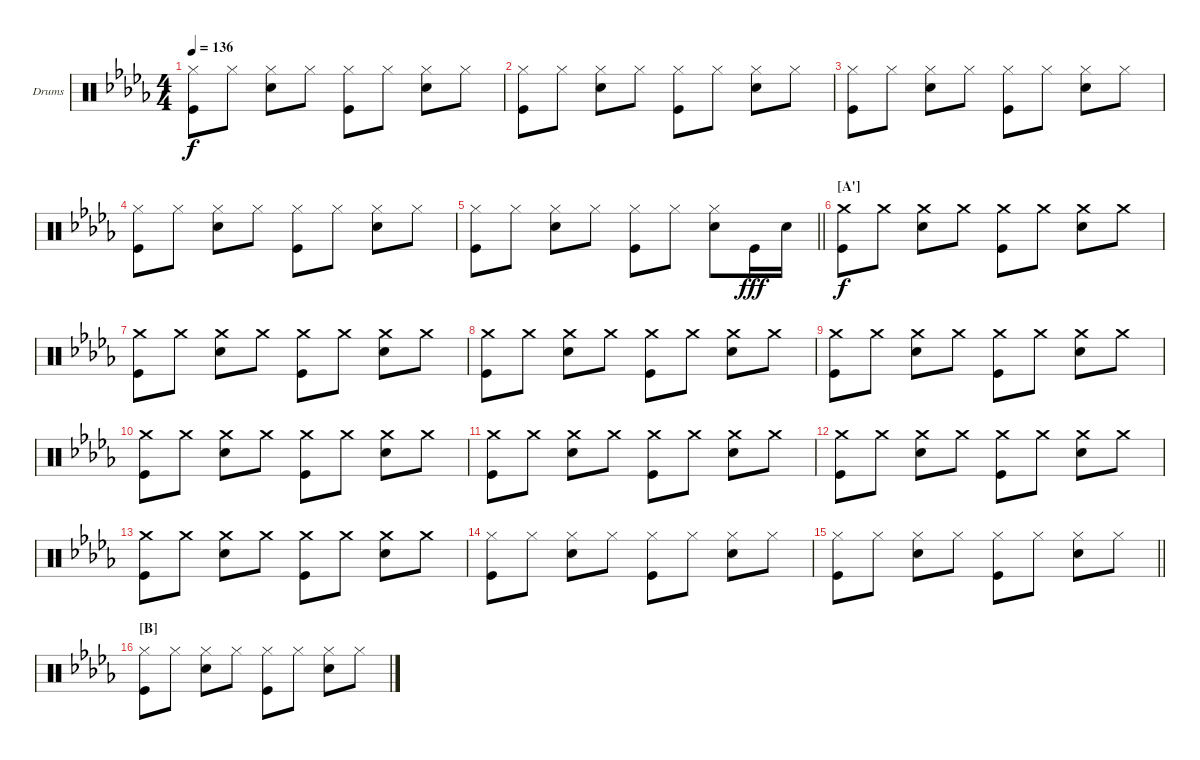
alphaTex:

\bracketExtendMode groupsimilarinstruments
\firstSystemTrackNameOrientation horizontal
\otherSystemsTrackNameOrientation horizontal
\track ("Fabrizio Moretti" "Drums") {instrument percussion}
\staff {score}
\articulation defaults
\ts (4 4)
\tempo 136
\clef neutral
\ks db
("Hi-Hat (closed)" "Kick (hit)").8{dy f} "Hi-Hat (closed)".8 ("Hi-Hat (closed)" "Snare (hit) 2").8 "Hi-Hat (closed)".8 ("Hi-Hat (closed)" "Kick (hit)").8 "Hi-Hat (closed)".8 ("Hi-Hat (closed)" "Snare (hit) 2").8 "Hi-Hat (closed)".8 |
("Hi-Hat (closed)" "Kick (hit)").8 "Hi-Hat (closed)".8 ("Hi-Hat (closed)" "Snare (hit) 2").8 "Hi-Hat (closed)".8 ("Hi-Hat (closed)" "Kick (hit)").8 "Hi-Hat (closed)".8 ("Hi-Hat (closed)" "Snare (hit) 2").8 "Hi-Hat (closed)".8 |
("Hi-Hat (closed)" "Kick (hit)").8 "Hi-Hat (closed)".8 ("Hi-Hat (closed)" "Snare (hit) 2").8 "Hi-Hat (closed)".8 ("Hi-Hat (closed)" "Kick (hit)").8 "Hi-Hat (closed)".8 ("Hi-Hat (closed)" "Snare (hit) 2").8 "Hi-Hat (closed)".8 |
("Hi-Hat (closed)" "Kick (hit)").8 "Hi-Hat (closed)".8 ("Hi-Hat (closed)" "Snare (hit) 2").8 "Hi-Hat (closed)".8 ("Hi-Hat (closed)" "Kick (hit)").8 "Hi-Hat (closed)".8 ("Hi-Hat (closed)" "Snare (hit) 2").8 "Hi-Hat (closed)".8 |
\barLineRight lightlight
("Hi-Hat (closed)" "Kick (hit)").8 "Hi-Hat (closed)".8 ("Hi-Hat (closed)" "Snare (hit) 2").8 "Hi-Hat (closed)".8 ("Hi-Hat (closed)" "Kick (hit)").8 "Hi-Hat (closed)".8 ("Hi-Hat (closed)" "Snare (hit) 2").8 "Kick (hit)".16{dy fff} "Snare (hit) 2".16 |
\section ("A'" "")
("Crash medium (hit)" "Kick (hit)").8{dy f} "Crash medium (hit)".8 ("Crash medium (hit)" "Snare (hit) 2").8 "Crash medium (hit)".8 ("Crash medium (hit)" "Kick (hit)").8 "Crash medium (hit)".8 ("Crash medium (hit)" "Snare (hit) 2").8 "Crash medium (hit)".8 |
("Crash medium (hit)" "Kick (hit)").8 "Crash medium (hit)".8 ("Crash medium (hit)" "Snare (hit) 2").8 "Crash medium (hit)".8 ("Crash medium (hit)" "Kick (hit)").8 "Crash medium (hit)".8 ("Crash medium (hit)" "Snare (hit) 2").8 "Crash medium (hit)".8 |
("Crash medium (hit)" "Kick (hit)").8 "Crash medium (hit)".8 ("Crash medium (hit)" "Snare (hit) 2").8 "Crash medium (hit)".8 ("Crash medium (hit)" "Kick (hit)").8 "Crash medium (hit)".8 ("Crash medium (hit)" "Snare (hit) 2").8 "Crash medium (hit)".8 |
("Crash medium (hit)" "Kick (hit)").8 "Crash medium (hit)".8 ("Crash medium (hit)" "Snare (hit) 2").8 "Crash medium (hit)".8 ("Crash medium (hit)" "Kick (hit)").8 "Crash medium (hit)".8 ("Crash medium (hit)" "Snare (hit) 2").8 "Crash medium (hit)".8 |
("Crash medium (hit)" "Kick (hit)").8 "Crash medium (hit)".8 ("Crash medium (hit)" "Snare (hit) 2").8 "Crash medium (hit)".8 ("Crash medium (hit)" "Kick (hit)").8 "Crash medium (hit)".8 ("Crash medium (hit)" "Snare (hit) 2").8 "Crash medium (hit)".8 |
("Crash medium (hit)" "Kick (hit)").8 "Crash medium (hit)".8 ("Crash medium (hit)" "Snare (hit) 2").8 "Crash medium (hit)".8 ("Crash medium (hit)" "Kick (hit)").8 "Crash medium (hit)".8 ("Crash medium (hit)" "Snare (hit) 2").8 "Crash medium (hit)".8 |
("Crash medium (hit)" "Kick (hit)").8 "Crash medium (hit)".8 ("Crash medium (hit)" "Snare (hit) 2").8 "Crash medium (hit)".8 ("Crash medium (hit)" "Kick (hit)").8 "Crash medium (hit)".8 ("Crash medium (hit)" "Snare (hit) 2").8 "Crash medium (hit)".8 |
("Crash medium (hit)" "Kick (hit)").8 "Crash medium (hit)".8 ("Crash medium (hit)" "Snare (hit) 2").8 "Crash medium (hit)".8 ("Crash medium (hit)" "Kick (hit)").8 "Crash medium (hit)".8 ("Crash medium (hit)" "Snare (hit) 2").8 "Crash medium (hit)".8 |
("Hi-Hat (closed)" "Kick (hit)").8 "Hi-Hat (closed)".8 ("Hi-Hat (closed)" "Snare (hit) 2").8 "Hi-Hat (closed)".8 ("Hi-Hat (closed)" "Kick (hit)").8 "Hi-Hat (closed)".8 ("Hi-Hat (closed)" "Snare (hit) 2").8 "Hi-Hat (closed)".8 |
\barLineRight lightlight
("Hi-Hat (closed)" "Kick (hit)").8 "Hi-Hat (closed)".8 ("Hi-Hat (closed)" "Snare (hit) 2").8 "Hi-Hat (closed)".8 ("Hi-Hat (closed)" "Kick (hit)").8 "Hi-Hat (closed)".8 ("Hi-Hat (closed)" "Snare (hit) 2").8 "Hi-Hat (closed)".8 |
\section ("B" "")
("Hi-Hat (closed)" "Kick (hit)").8 "Hi-Hat (closed)".8 ("Hi-Hat (closed)" "Snare (hit) 2").8 "Hi-Hat (closed)".8 ("Hi-Hat (closed)" "Kick (hit)").8 "Hi-Hat (closed)".8 ("Hi-Hat (closed)" "Snare (hit) 2").8 "Hi-Hat (closed)".8
